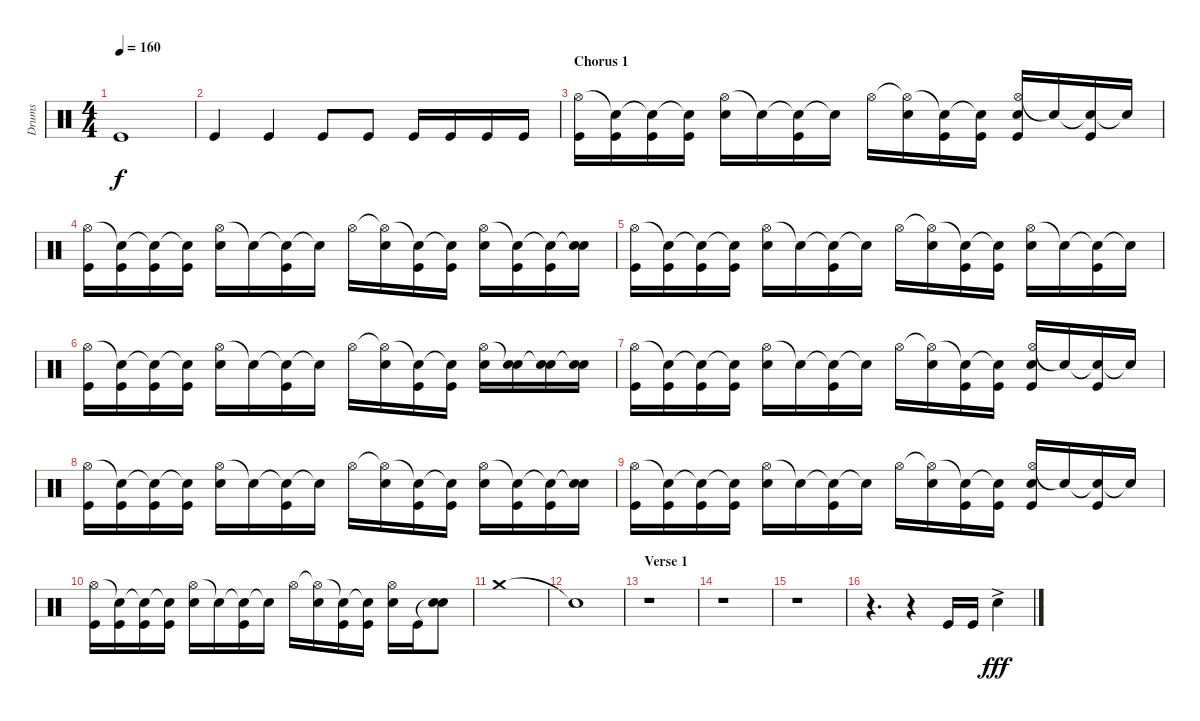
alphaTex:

\track ("Drums" "Drums") {instrument percussion}
\staff {score}
\articulation defaults
\ts (4 4)
\tempo 160
\clef neutral
\ks c "Kick (hit)".1{dy f}
|
"Kick (hit)".4 "Kick (hit)".4 "Kick (hit)".8 "Kick (hit)".8 "Kick (hit)".16 "Kick (hit)".16 "Kick (hit)".16 "Kick (hit)".16 |
\section ("" "Chorus 1")
("Hi-Hat (open)" "Kick (hit)").16 ("Snare (hit)"{t} "Kick (hit)").16 ("Snare (hit)"{t} "Kick (hit)").16 ("Snare (hit)"{t} "Kick (hit)").16 ("Hi-Hat (open)" "Electric Snare (hit)").16 "Snare (hit)"{t}.16 ("Snare (hit)"{t} "Kick (hit)").16 "Snare (hit)"{t}.16 "Hi-Hat (open)".16 ("Hi-Hat (open)"{t} "Electric Snare (hit)").16 ("Snare (hit)"{t} "Kick (hit)").16 ("Snare (hit)"{t} "Kick (hit)").16 ("Hi-Hat (open)" "Electric Snare (hit)" "Kick (hit)").16 "Snare (hit)"{t}.16 ("Snare (hit)"{t} "Kick (hit)").16 "Snare (hit)"{t}.16 |
("Hi-Hat (open)" "Kick (hit)").16 ("Snare (hit)"{t} "Kick (hit)").16 ("Snare (hit)"{t} "Kick (hit)").16 ("Snare (hit)"{t} "Kick (hit)").16 ("Hi-Hat (open)" "Electric Snare (hit)").16 "Snare (hit)"{t}.16 ("Snare (hit)"{t} "Kick (hit)").16 "Snare (hit)"{t}.16 "Hi-Hat (open)".16 ("Hi-Hat (open)"{t} "Electric Snare (hit)").16 ("Snare (hit)"{t} "Kick (hit)").16 ("Snare (hit)"{t} "Kick (hit)").16 ("Hi-Hat (open)" "Electric Snare (hit)").16 ("Snare (hit)"{t} "Kick (hit)").16 ("Snare (hit)"{t} "Kick (hit)").16 ("Snare (hit)"{t} "Electric Snare (hit)").16 |
("Hi-Hat (open)" "Kick (hit)").16 ("Snare (hit)"{t} "Kick (hit)").16 ("Snare (hit)"{t} "Kick (hit)").16 ("Snare (hit)"{t} "Kick (hit)").16 ("Hi-Hat (open)" "Electric Snare (hit)").16 "Snare (hit)"{t}.16 ("Snare (hit)"{t} "Kick (hit)").16 "Snare (hit)"{t}.16 "Hi-Hat (open)".16 ("Hi-Hat (open)"{t} "Electric Snare (hit)").16 ("Snare (hit)"{t} "Kick (hit)").16 ("Snare (hit)"{t} "Kick (hit)").16 ("Hi-Hat (open)" "Electric Snare (hit)").16 "Snare (hit)"{t}.16 ("Snare (hit)"{t} "Kick (hit)").16 "Snare (hit)"{t}.16 |
("Hi-Hat (open)" "Kick (hit)").16 ("Snare (hit)"{t} "Kick (hit)").16 ("Snare (hit)"{t} "Kick (hit)").16 ("Snare (hit)"{t} "Kick (hit)").16 ("Hi-Hat (open)" "Electric Snare (hit)").16 "Snare (hit)"{t}.16 ("Snare (hit)"{t} "Kick (hit)").16 "Snare (hit)"{t}.16 "Hi-Hat (open)".16 ("Hi-Hat (open)"{t} "Electric Snare (hit)").16 ("Snare (hit)"{t} "Kick (hit)").16 ("Snare (hit)"{t} "Kick (hit)").16 ("Hi-Hat (open)" "Electric Snare (hit)").16 ("Snare (hit)"{t} "Electric Snare (hit)").16 ("Snare (hit)"{t} "Electric Snare (hit)").16 ("Snare (hit)"{t} "Electric Snare (hit)").16 |
("Hi-Hat (open)" "Kick (hit)").16 ("Snare (hit)"{t} "Kick (hit)").16 ("Snare (hit)"{t} "Kick (hit)").16 ("Snare (hit)"{t} "Kick (hit)").16 ("Hi-Hat (open)" "Electric Snare (hit)").16 "Snare (hit)"{t}.16 ("Snare (hit)"{t} "Kick (hit)").16 "Snare (hit)"{t}.16 "Hi-Hat (open)".16 ("Hi-Hat (open)"{t} "Electric Snare (hit)").16 ("Snare (hit)"{t} "Kick (hit)").16 ("Snare (hit)"{t} "Kick (hit)").16 ("Hi-Hat (open)" "Electric Snare (hit)" "Kick (hit)").16 "Snare (hit)"{t}.16 ("Snare (hit)"{t} "Kick (hit)").16 "Snare (hit)"{t}.16 |
("Hi-Hat (open)" "Kick (hit)").16 ("Snare (hit)"{t} "Kick (hit)").16 ("Snare (hit)"{t} "Kick (hit)").16 ("Snare (hit)"{t} "Kick (hit)").16 ("Hi-Hat (open)" "Electric Snare (hit)").16 "Snare (hit)"{t}.16 ("Snare (hit)"{t} "Kick (hit)").16 "Snare (hit)"{t}.16 "Hi-Hat (open)".16 ("Hi-Hat (open)"{t} "Electric Snare (hit)").16 ("Snare (hit)"{t} "Kick (hit)").16 ("Snare (hit)"{t} "Kick (hit)").16 ("Hi-Hat (open)" "Electric Snare (hit)").16 ("Snare (hit)"{t} "Kick (hit)").16 ("Snare (hit)"{t} "Kick (hit)").16 ("Snare (hit)"{t} "Electric Snare (hit)").16 |
("Hi-Hat (open)" "Kick (hit)").16 ("Snare (hit)"{t} "Kick (hit)").16 ("Snare (hit)"{t} "Kick (hit)").16 ("Snare (hit)"{t} "Kick (hit)").16 ("Hi-Hat (open)" "Electric Snare (hit)").16 "Snare (hit)"{t}.16 ("Snare (hit)"{t} "Kick (hit)").16 "Snare (hit)"{t}.16 "Hi-Hat (open)".16 ("Hi-Hat (open)"{t} "Electric Snare (hit)").16 ("Snare (hit)"{t} "Kick (hit)").16 ("Snare (hit)"{t} "Kick (hit)").16 ("Hi-Hat (open)" "Electric Snare (hit)" "Kick (hit)").16 "Snare (hit)"{t}.16 ("Snare (hit)"{t} "Kick (hit)").16 "Snare (hit)"{t}.16 |
("Hi-Hat (open)" "Kick (hit)").16 ("Snare (hit)"{t} "Kick (hit)").16 ("Snare (hit)"{t} "Kick (hit)").16 ("Snare (hit)"{t} "Kick (hit)").16 ("Hi-Hat (open)" "Electric Snare (hit)").16 "Snare (hit)"{t}.16 ("Snare (hit)"{t} "Kick (hit)").16 "Snare (hit)"{t}.16 "Hi-Hat (open)".16 ("Hi-Hat (open)"{t} "Electric Snare (hit)").16 ("Snare (hit)"{t} "Kick (hit)").16 ("Snare (hit)"{t} "Kick (hit)").16 ("Hi-Hat (open)" "Electric Snare (hit)").16 "Kick (hit)".16 ("Snare (hit)"{t} "Electric Snare (hit)").8 |
"Crash medium (hit)".1 |
"Snare (hit)"{t}.1 |
\section ("" "Verse 1")
r.1 |
r.1 |
r.1 |
r.4{d} r.4 "Kick (hit)".16 "Kick (hit)".16 "Electric Snare (hit)"{ac}.4{dy fff}
